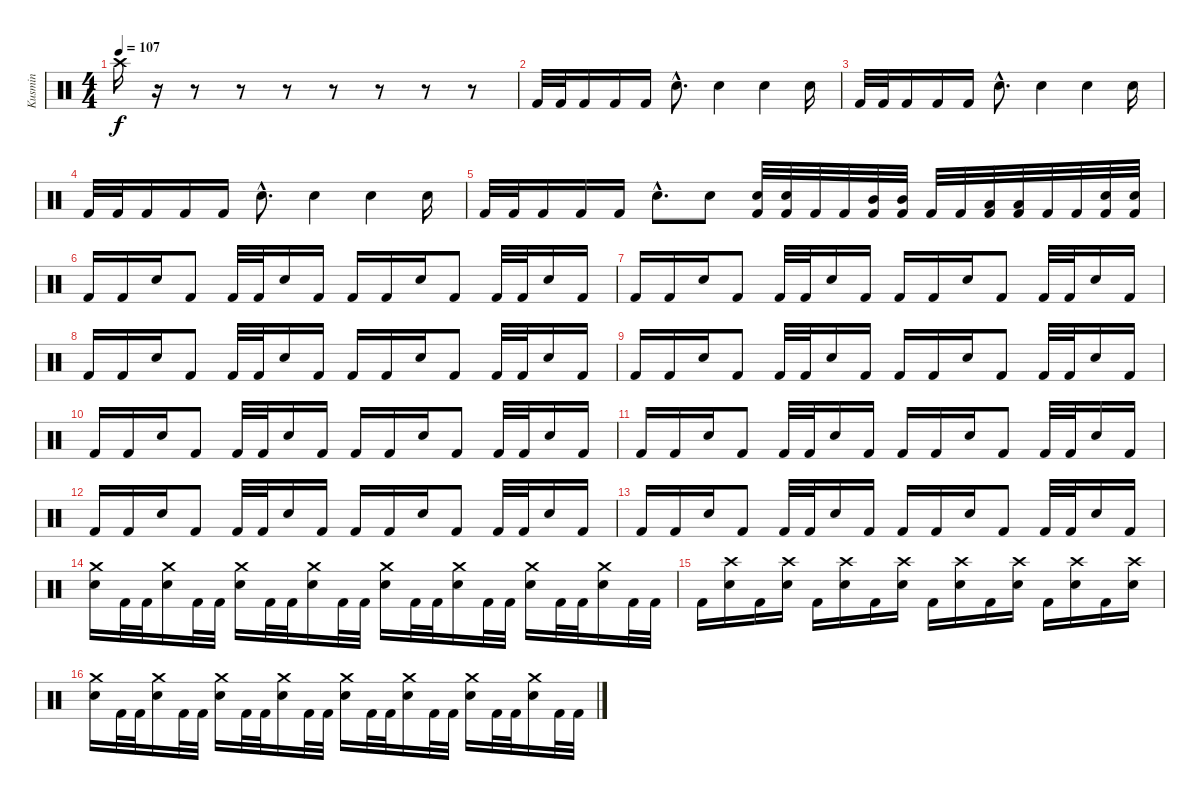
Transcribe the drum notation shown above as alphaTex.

\track ("Kusmin" "Kusmin") {instrument percussion}
\staff {score}
\articulation defaults
\ts (4 4)
\tempo 107
\clef neutral
\ks c "Crash high (hit)".16{dy f}
r.16 r.8 r.8 r.8 r.8 r.8 r.8 r.8 |
"Kick (hit) 2".32 "Kick (hit) 2".32 "Kick (hit) 2".16 "Kick (hit) 2".16 "Kick (hit) 2".16 "Snare (hit) 2"{hac}.8{d} "Snare (hit) 2".4 "Snare (hit) 2".4 "Snare (hit) 2".16 |
"Kick (hit) 2".32 "Kick (hit) 2".32 "Kick (hit) 2".16 "Kick (hit) 2".16 "Kick (hit) 2".16 "Snare (hit) 2"{hac}.8{d} "Snare (hit) 2".4 "Snare (hit) 2".4 "Snare (hit) 2".16 |
"Kick (hit) 2".32 "Kick (hit) 2".32 "Kick (hit) 2".16 "Kick (hit) 2".16 "Kick (hit) 2".16 "Snare (hit) 2"{hac}.8{d} "Snare (hit) 2".4 "Snare (hit) 2".4 "Snare (hit) 2".16 |
"Kick (hit) 2".32 "Kick (hit) 2".32 "Kick (hit) 2".16 "Kick (hit) 2".16 "Kick (hit) 2".16 "Snare (hit) 2"{hac}.8{d} "Snare (hit) 2".8 ("Snare (hit) 2" "Kick (hit) 2").32 ("Snare (hit) 2" "Kick (hit) 2").32 "Kick (hit) 2".32 "Kick (hit) 2".32 ("Mid Tom (hit)" "Kick (hit) 2").32 ("Mid Tom (hit)" "Kick (hit) 2").32 "Kick (hit) 2".32 "Kick (hit) 2".32 ("Low Tom (hit)" "Kick (hit) 2").32 ("Low Tom (hit)" "Kick (hit) 2").32 "Kick (hit) 2".32 "Kick (hit) 2".32 ("Snare (hit) 2" "Kick (hit) 2").32 ("Snare (hit) 2" "Kick (hit) 2").32 |
"Kick (hit) 2".16 "Kick (hit) 2".16 "Snare (hit) 2".16 "Kick (hit) 2".8 "Kick (hit) 2".32 "Kick (hit) 2".32 "Snare (hit) 2".16 "Kick (hit) 2".16 "Kick (hit) 2".16 "Kick (hit) 2".16 "Snare (hit) 2".16 "Kick (hit) 2".8 "Kick (hit) 2".32 "Kick (hit) 2".32 "Snare (hit) 2".16 "Kick (hit) 2".16 |
"Kick (hit) 2".16 "Kick (hit) 2".16 "Snare (hit) 2".16 "Kick (hit) 2".8 "Kick (hit) 2".32 "Kick (hit) 2".32 "Snare (hit) 2".16 "Kick (hit) 2".16 "Kick (hit) 2".16 "Kick (hit) 2".16 "Snare (hit) 2".16 "Kick (hit) 2".8 "Kick (hit) 2".32 "Kick (hit) 2".32 "Snare (hit) 2".16 "Kick (hit) 2".16 |
"Kick (hit) 2".16 "Kick (hit) 2".16 "Snare (hit) 2".16 "Kick (hit) 2".8 "Kick (hit) 2".32 "Kick (hit) 2".32 "Snare (hit) 2".16 "Kick (hit) 2".16 "Kick (hit) 2".16 "Kick (hit) 2".16 "Snare (hit) 2".16 "Kick (hit) 2".8 "Kick (hit) 2".32 "Kick (hit) 2".32 "Snare (hit) 2".16 "Kick (hit) 2".16 |
"Kick (hit) 2".16 "Kick (hit) 2".16 "Snare (hit) 2".16 "Kick (hit) 2".8 "Kick (hit) 2".32 "Kick (hit) 2".32 "Snare (hit) 2".16 "Kick (hit) 2".16 "Kick (hit) 2".16 "Kick (hit) 2".16 "Snare (hit) 2".16 "Kick (hit) 2".8 "Kick (hit) 2".32 "Kick (hit) 2".32 "Snare (hit) 2".16 "Kick (hit) 2".16 |
"Kick (hit) 2".16 "Kick (hit) 2".16 "Snare (hit) 2".16 "Kick (hit) 2".8 "Kick (hit) 2".32 "Kick (hit) 2".32 "Snare (hit) 2".16 "Kick (hit) 2".16 "Kick (hit) 2".16 "Kick (hit) 2".16 "Snare (hit) 2".16 "Kick (hit) 2".8 "Kick (hit) 2".32 "Kick (hit) 2".32 "Snare (hit) 2".16 "Kick (hit) 2".16 |
"Kick (hit) 2".16 "Kick (hit) 2".16 "Snare (hit) 2".16 "Kick (hit) 2".8 "Kick (hit) 2".32 "Kick (hit) 2".32 "Snare (hit) 2".16 "Kick (hit) 2".16 "Kick (hit) 2".16 "Kick (hit) 2".16 "Snare (hit) 2".16 "Kick (hit) 2".8 "Kick (hit) 2".32 "Kick (hit) 2".32 "Snare (hit) 2".16 "Kick (hit) 2".16 |
"Kick (hit) 2".16 "Kick (hit) 2".16 "Snare (hit) 2".16 "Kick (hit) 2".8 "Kick (hit) 2".32 "Kick (hit) 2".32 "Snare (hit) 2".16 "Kick (hit) 2".16 "Kick (hit) 2".16 "Kick (hit) 2".16 "Snare (hit) 2".16 "Kick (hit) 2".8 "Kick (hit) 2".32 "Kick (hit) 2".32 "Snare (hit) 2".16 "Kick (hit) 2".16 |
"Kick (hit) 2".16 "Kick (hit) 2".16 "Snare (hit) 2".16 "Kick (hit) 2".8 "Kick (hit) 2".32 "Kick (hit) 2".32 "Snare (hit) 2".16 "Kick (hit) 2".16 "Kick (hit) 2".16 "Kick (hit) 2".16 "Snare (hit) 2".16 "Kick (hit) 2".8 "Kick (hit) 2".32 "Kick (hit) 2".32 "Snare (hit) 2".16 "Kick (hit) 2".16 |
("Crash medium (hit)" "Snare (hit) 2").16 "Kick (hit) 2".32 "Kick (hit) 2".32 ("Crash medium (hit)" "Snare (hit) 2").16 "Kick (hit) 2".32 "Kick (hit) 2".32 ("Crash medium (hit)" "Snare (hit) 2").16 "Kick (hit) 2".32 "Kick (hit) 2".32 ("Crash medium (hit)" "Snare (hit) 2").16 "Kick (hit) 2".32 "Kick (hit) 2".32 ("Crash medium (hit)" "Snare (hit) 2").16 "Kick (hit) 2".32 "Kick (hit) 2".32 ("Crash medium (hit)" "Snare (hit) 2").16 "Kick (hit) 2".32 "Kick (hit) 2".32 ("Crash medium (hit)" "Snare (hit) 2").16 "Kick (hit) 2".32 "Kick (hit) 2".32 ("Crash medium (hit)" "Snare (hit) 2").16 "Kick (hit) 2".32 "Kick (hit) 2".32 |
"Kick (hit) 2".16 ("Crash high (hit)" "Snare (hit) 2").16 "Kick (hit) 2".16 ("Crash high (hit)" "Snare (hit) 2").16 "Kick (hit) 2".16 ("Crash high (hit)" "Snare (hit) 2").16 "Kick (hit) 2".16 ("Crash high (hit)" "Snare (hit) 2").16 "Kick (hit) 2".16 ("Crash high (hit)" "Snare (hit) 2").16 "Kick (hit) 2".16 ("Crash high (hit)" "Snare (hit) 2").16 "Kick (hit) 2".16 ("Crash high (hit)" "Snare (hit) 2").16 "Kick (hit) 2".16 ("Crash high (hit)" "Snare (hit) 2").16 |
("Crash medium (hit)" "Snare (hit) 2").16 "Kick (hit) 2".32 "Kick (hit) 2".32 ("Crash medium (hit)" "Snare (hit) 2").16 "Kick (hit) 2".32 "Kick (hit) 2".32 ("Crash medium (hit)" "Snare (hit) 2").16 "Kick (hit) 2".32 "Kick (hit) 2".32 ("Crash medium (hit)" "Snare (hit) 2").16 "Kick (hit) 2".32 "Kick (hit) 2".32 ("Crash medium (hit)" "Snare (hit) 2").16 "Kick (hit) 2".32 "Kick (hit) 2".32 ("Crash medium (hit)" "Snare (hit) 2").16 "Kick (hit) 2".32 "Kick (hit) 2".32 ("Crash medium (hit)" "Snare (hit) 2").16 "Kick (hit) 2".32 "Kick (hit) 2".32 ("Crash medium (hit)" "Snare (hit) 2").16 "Kick (hit) 2".32 "Kick (hit) 2".32
